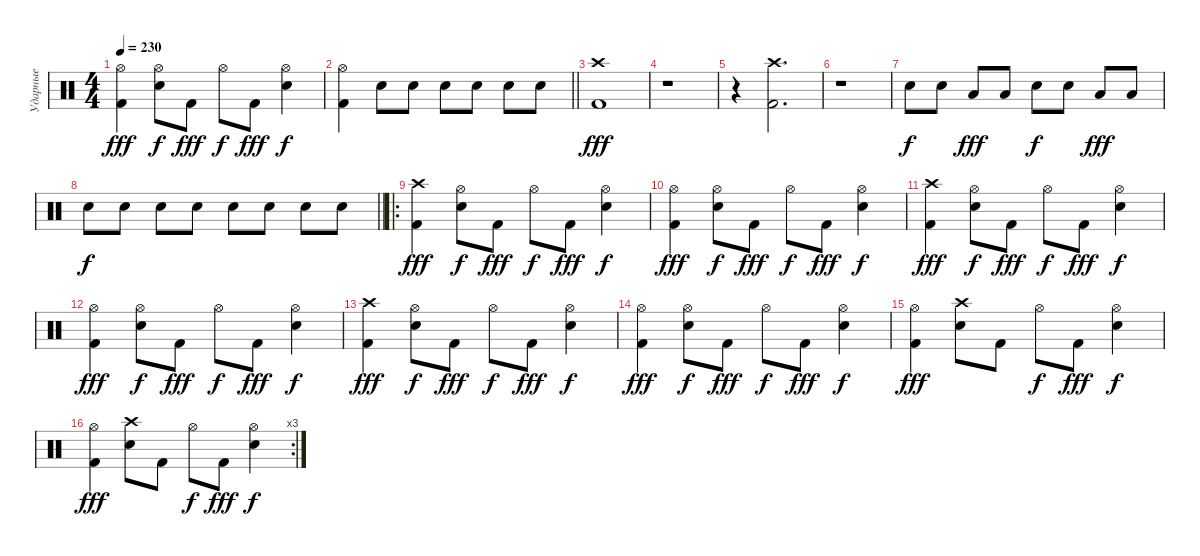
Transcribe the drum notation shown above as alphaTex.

\track ("Ударные" "Ударные") {instrument percussion}
\staff
\articulation defaults
\ts (4 4)
\tempo 230
\clef neutral
\ks c
("Kick (hit) 2" "Hi-Hat (open)").4{dy fff} ("Snare (hit) 2" "Hi-Hat (open)").8{dy f} "Kick (hit) 2".8{dy fff} "Hi-Hat (open)".8{dy f} "Kick (hit) 2".8{dy fff} ("Snare (hit) 2" "Hi-Hat (open)").4{dy f} |
\barLineRight lightlight
("Kick (hit) 2" "Hi-Hat (open)").4 "Snare (hit) 2".8 "Snare (hit) 2".8 "Snare (hit) 2".8 "Snare (hit) 2".8 "Snare (hit) 2".8 "Snare (hit) 2".8 |
("Kick (hit) 2" "Crash high (hit)").1{dy fff} |
r.1 |
r.4 ("Kick (hit) 2" "Crash high (hit)").2{d} |
r.1 |
"Snare (hit) 2".8{dy f} "Snare (hit) 2".8 "Low Tom (hit)".8{dy fff} "Low Tom (hit)".8 "Snare (hit) 2".8{dy f} "Snare (hit) 2".8 "Low Tom (hit)".8{dy fff} "Low Tom (hit)".8 |
\barLineRight lightlight "Snare (hit) 2".8{dy f} "Snare (hit) 2".8 "Snare (hit) 2".8 "Snare (hit) 2".8 "Snare (hit) 2".8 "Snare (hit) 2".8 "Snare (hit) 2".8 "Snare (hit) 2".8
|
\ro
("Kick (hit) 2" "Crash high (hit)").4{dy fff} ("Snare (hit) 2" "Hi-Hat (open)").8{dy f} "Kick (hit) 2".8{dy fff} "Hi-Hat (open)".8{dy f} "Kick (hit) 2".8{dy fff} ("Snare (hit) 2" "Hi-Hat (open)").4{dy f} |
("Kick (hit) 2" "Hi-Hat (open)").4{dy fff} ("Snare (hit) 2" "Hi-Hat (open)").8{dy f} "Kick (hit) 2".8{dy fff} "Hi-Hat (open)".8{dy f} "Kick (hit) 2".8{dy fff} ("Snare (hit) 2" "Hi-Hat (open)").4{dy f} |
("Kick (hit) 2" "Crash high (hit)").4{dy fff} ("Snare (hit) 2" "Hi-Hat (open)").8{dy f} "Kick (hit) 2".8{dy fff} "Hi-Hat (open)".8{dy f} "Kick (hit) 2".8{dy fff} ("Snare (hit) 2" "Hi-Hat (open)").4{dy f} |
("Kick (hit) 2" "Hi-Hat (open)").4{dy fff} ("Snare (hit) 2" "Hi-Hat (open)").8{dy f} "Kick (hit) 2".8{dy fff} "Hi-Hat (open)".8{dy f} "Kick (hit) 2".8{dy fff} ("Snare (hit) 2" "Hi-Hat (open)").4{dy f} |
("Kick (hit) 2" "Crash high (hit)").4{dy fff} ("Snare (hit) 2" "Hi-Hat (open)").8{dy f} "Kick (hit) 2".8{dy fff} "Hi-Hat (open)".8{dy f} "Kick (hit) 2".8{dy fff} ("Snare (hit) 2" "Hi-Hat (open)").4{dy f} |
("Kick (hit) 2" "Hi-Hat (open)").4{dy fff} ("Snare (hit) 2" "Hi-Hat (open)").8{dy f} "Kick (hit) 2".8{dy fff} "Hi-Hat (open)".8{dy f} "Kick (hit) 2".8{dy fff} ("Snare (hit) 2" "Hi-Hat (open)").4{dy f} |
("Kick (hit) 2" "Hi-Hat (open)").4{dy fff} ("Snare (hit) 2" "Crash high (hit)").8 "Kick (hit) 2".8 "Hi-Hat (open)".8{dy f} "Kick (hit) 2".8{dy fff} ("Snare (hit) 2" "Hi-Hat (open)").4{dy f} |
\rc 3
("Kick (hit) 2" "Hi-Hat (open)").4{dy fff} ("Snare (hit) 2" "Crash high (hit)").8 "Kick (hit) 2".8 "Hi-Hat (open)".8{dy f} "Kick (hit) 2".8{dy fff} ("Snare (hit) 2" "Hi-Hat (open)").4{dy f}
